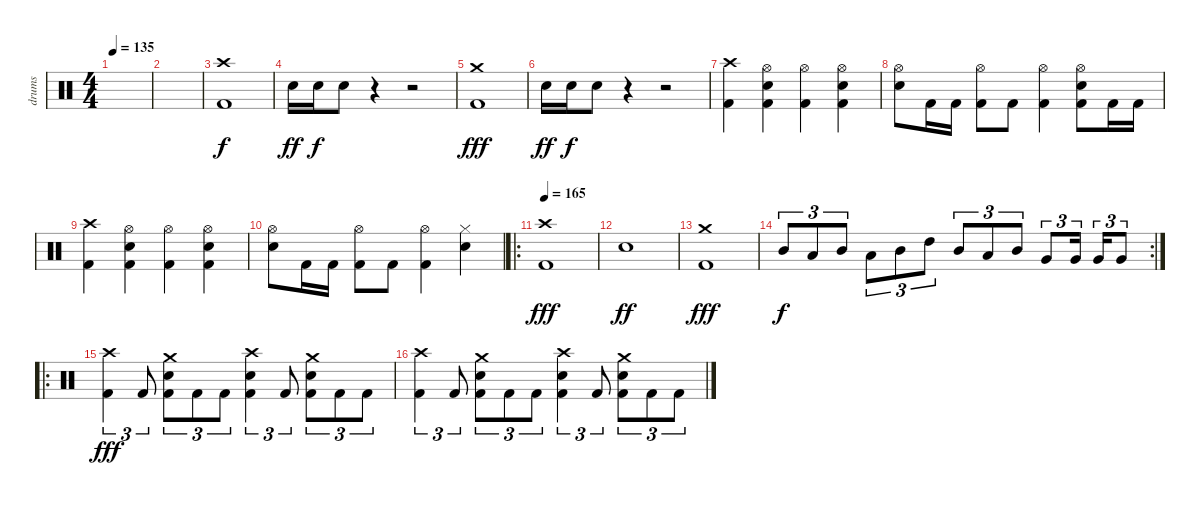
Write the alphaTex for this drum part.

\track ("drums" "drums") {instrument percussion}
\staff {score}
\articulation defaults
\ts (4 4)
\tempo 135
\clef neutral
\ks c
|
|
("Crash high (hit)" "Kick (hit) 2").1 |
"Electric Snare (hit)".16{dy ff} "Electric Snare (hit)".16{dy f} "Electric Snare (hit)".8 r.4 r.2 |
("Crash medium (hit)" "Kick (hit) 2").1{dy fff} |
"Electric Snare (hit)".16{dy ff} "Electric Snare (hit)".16{dy f} "Electric Snare (hit)".8 r.4 r.2 |
("Crash high (hit)" "Kick (hit) 2").4 ("Hi-Hat (open)" "Electric Snare (hit)" "Kick (hit) 2").4 ("Hi-Hat (open)" "Kick (hit) 2").4 ("Hi-Hat (open)" "Electric Snare (hit)" "Kick (hit) 2").4 |
("Hi-Hat (open)" "Electric Snare (hit)").8 "Kick (hit) 2".16 "Kick (hit) 2".16 ("Hi-Hat (open)" "Kick (hit) 2").8 "Kick (hit) 2".8 ("Hi-Hat (open)" "Kick (hit) 2").4 ("Hi-Hat (open)" "Electric Snare (hit)" "Kick (hit) 2").8 "Kick (hit) 2".16 "Kick (hit) 2".16 |
("Crash high (hit)" "Kick (hit) 2").4 ("Hi-Hat (open)" "Electric Snare (hit)" "Kick (hit) 2").4 ("Hi-Hat (open)" "Kick (hit) 2").4 ("Hi-Hat (open)" "Electric Snare (hit)" "Kick (hit) 2").4 |
("Hi-Hat (open)" "Electric Snare (hit)").8 "Kick (hit) 2".16 "Kick (hit) 2".16 ("Hi-Hat (open)" "Kick (hit) 2").8 "Kick (hit) 2".8 ("Hi-Hat (open)" "Kick (hit) 2").4 ("Hi-Hat (closed)" "Electric Snare (hit)").4 |
\ro
\tempo 165
("Crash high (hit)" "Kick (hit) 2").1{dy fff} |
"Electric Snare (hit)".1{dy ff} |
("Crash medium (hit)" "Kick (hit) 2").1{dy fff} |
\rc 2 "Mid Tom (hit)".8{tu (3 2) dy f} "Low Tom (hit)".8{tu (3 2)} "Mid Tom (hit)".8{tu (3 2)} "Low Tom (hit)".8{tu (3 2)} "Mid Tom (hit)".8{tu (3 2)} "High Tom (hit)".8{tu (3 2)} "Mid Tom (hit)".8{tu (3 2)} "Low Tom (hit)".8{tu (3 2)} "Mid Tom (hit)".8{tu (3 2)} "Very Low Tom (hit)".8{tu (3 2)} "Very Low Tom (hit)".16{tu (3 2) beam splitsecondary} "Very Low Tom (hit)".16{tu (3 2)} "Very Low Tom (hit)".8{tu (3 2)}
|
\ro
("Crash high (hit)" "Kick (hit) 2").4{tu (3 2) dy fff} "Kick (hit) 2".8{tu (3 2)} ("Crash medium (hit)" "Electric Snare (hit)" "Kick (hit) 2").8{tu (3 2)} "Kick (hit) 2".8{tu (3 2)} "Kick (hit) 2".8{tu (3 2)} ("Crash high (hit)" "Electric Snare (hit)" "Kick (hit) 2").4{tu (3 2)} "Kick (hit) 2".8{tu (3 2)} ("Crash medium (hit)" "Electric Snare (hit)" "Kick (hit) 2").8{tu (3 2)} "Kick (hit) 2".8{tu (3 2)} "Kick (hit) 2".8{tu (3 2)} |
("Crash high (hit)" "Kick (hit) 2").4{tu (3 2)} "Kick (hit) 2".8{tu (3 2)} ("Crash medium (hit)" "Electric Snare (hit)" "Kick (hit) 2").8{tu (3 2)} "Kick (hit) 2".8{tu (3 2)} "Kick (hit) 2".8{tu (3 2)} ("Crash high (hit)" "Electric Snare (hit)" "Kick (hit) 2").4{tu (3 2)} "Kick (hit) 2".8{tu (3 2)} ("Crash medium (hit)" "Electric Snare (hit)" "Kick (hit) 2").8{tu (3 2)} "Kick (hit) 2".8{tu (3 2)} "Kick (hit) 2".8{tu (3 2)}
